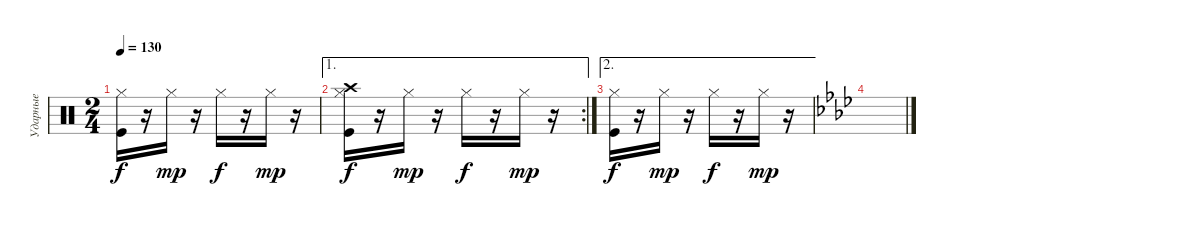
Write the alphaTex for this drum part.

\track ("Ударные" "Ударные") {instrument percussion}
\staff {score}
\articulation defaults
\ts (2 4)
\tempo 130
\clef neutral
\ks c
("Kick (hit)" "Hi-Hat (closed)").16{dy f} r.16 "Hi-Hat (closed)".16{dy mp} r.16 "Hi-Hat (closed)".16{dy f} r.16 "Hi-Hat (closed)".16{dy mp} r.16 |
\ae 1
\rc 2
("Kick (hit)" "Hi-Hat (closed)" "Crash high (hit)").16{dy f} r.16 "Hi-Hat (closed)".16{dy mp} r.16 "Hi-Hat (closed)".16{dy f} r.16 "Hi-Hat (closed)".16{dy mp} r.16 |
\ae 2
("Kick (hit)" "Hi-Hat (closed)").16{dy f} r.16 "Hi-Hat (closed)".16{dy mp} r.16 "Hi-Hat (closed)".16{dy f} r.16 "Hi-Hat (closed)".16{dy mp} r.16 |
\ks ab
